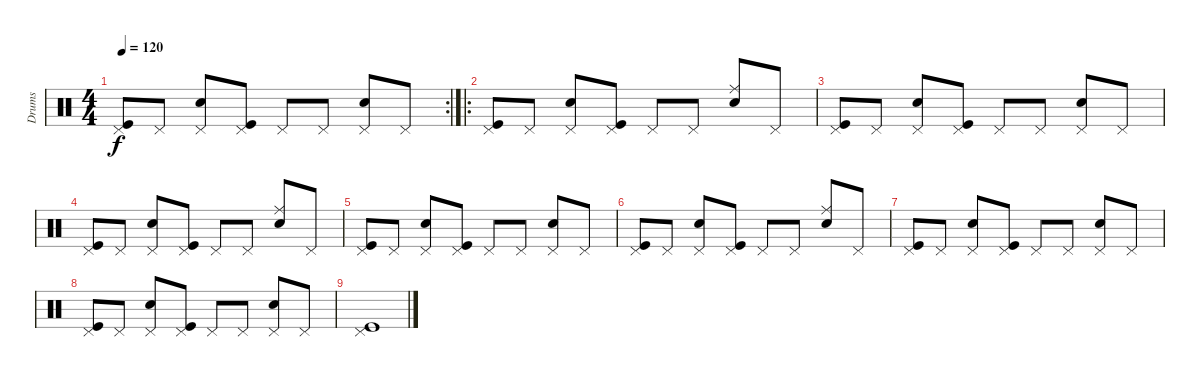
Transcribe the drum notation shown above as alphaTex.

\track ("Drums" "Drums") {instrument percussion}
\staff {score}
\articulation defaults
\rc 2
\ts (4 4)
\tempo 120
\clef neutral
\ks c
("Pedal Hi-Hat (hit)" "Kick (hit)").8{dy f} "Pedal Hi-Hat (hit)".8 ("Pedal Hi-Hat (hit)" "Electric Snare (hit)").8 ("Pedal Hi-Hat (hit)" "Kick (hit)").8 "Pedal Hi-Hat (hit)".8 "Pedal Hi-Hat (hit)".8 ("Pedal Hi-Hat (hit)" "Electric Snare (hit)").8 "Pedal Hi-Hat (hit)".8 |
\ro
("Pedal Hi-Hat (hit)" "Kick (hit)").8 "Pedal Hi-Hat (hit)".8 ("Pedal Hi-Hat (hit)" "Electric Snare (hit)").8 ("Pedal Hi-Hat (hit)" "Kick (hit)").8 "Pedal Hi-Hat (hit)".8 "Pedal Hi-Hat (hit)".8 ("Ride (middle)" "Electric Snare (hit)").8 "Pedal Hi-Hat (hit)".8 |
("Pedal Hi-Hat (hit)" "Kick (hit)").8 "Pedal Hi-Hat (hit)".8 ("Pedal Hi-Hat (hit)" "Electric Snare (hit)").8 ("Pedal Hi-Hat (hit)" "Kick (hit)").8 "Pedal Hi-Hat (hit)".8 "Pedal Hi-Hat (hit)".8 ("Pedal Hi-Hat (hit)" "Electric Snare (hit)").8 "Pedal Hi-Hat (hit)".8 |
("Pedal Hi-Hat (hit)" "Kick (hit)").8 "Pedal Hi-Hat (hit)".8 ("Pedal Hi-Hat (hit)" "Electric Snare (hit)").8 ("Pedal Hi-Hat (hit)" "Kick (hit)").8 "Pedal Hi-Hat (hit)".8 "Pedal Hi-Hat (hit)".8 ("Ride (middle)" "Electric Snare (hit)").8 "Pedal Hi-Hat (hit)".8 |
("Pedal Hi-Hat (hit)" "Kick (hit)").8 "Pedal Hi-Hat (hit)".8 ("Pedal Hi-Hat (hit)" "Electric Snare (hit)").8 ("Pedal Hi-Hat (hit)" "Kick (hit)").8 "Pedal Hi-Hat (hit)".8 "Pedal Hi-Hat (hit)".8 ("Pedal Hi-Hat (hit)" "Electric Snare (hit)").8 "Pedal Hi-Hat (hit)".8 |
("Pedal Hi-Hat (hit)" "Kick (hit)").8 "Pedal Hi-Hat (hit)".8 ("Pedal Hi-Hat (hit)" "Electric Snare (hit)").8 ("Pedal Hi-Hat (hit)" "Kick (hit)").8 "Pedal Hi-Hat (hit)".8 "Pedal Hi-Hat (hit)".8 ("Ride (middle)" "Electric Snare (hit)").8 "Pedal Hi-Hat (hit)".8 |
("Pedal Hi-Hat (hit)" "Kick (hit)").8 "Pedal Hi-Hat (hit)".8 ("Pedal Hi-Hat (hit)" "Electric Snare (hit)").8 ("Pedal Hi-Hat (hit)" "Kick (hit)").8 "Pedal Hi-Hat (hit)".8 "Pedal Hi-Hat (hit)".8 ("Pedal Hi-Hat (hit)" "Electric Snare (hit)").8 "Pedal Hi-Hat (hit)".8 |
("Pedal Hi-Hat (hit)" "Kick (hit)").8 "Pedal Hi-Hat (hit)".8 ("Pedal Hi-Hat (hit)" "Electric Snare (hit)").8 ("Pedal Hi-Hat (hit)" "Kick (hit)").8 "Pedal Hi-Hat (hit)".8 "Pedal Hi-Hat (hit)".8 ("Pedal Hi-Hat (hit)" "Electric Snare (hit)").8 "Pedal Hi-Hat (hit)".8 |
("Pedal Hi-Hat (hit)" "Kick (hit)").1
